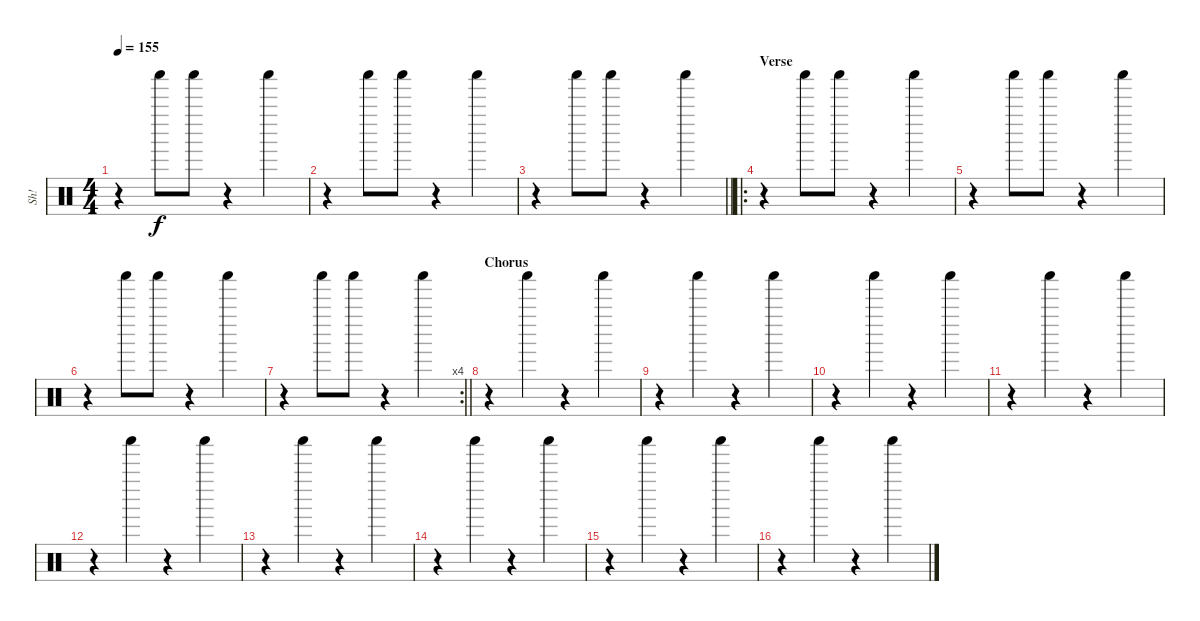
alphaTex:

\track ("Sh!" "Sh!") {instrument percussion}
\staff {score}
\articulation defaults
\ts (4 4)
\tempo 155
\clef neutral
\ks c
r.4{dy f} "Shaker (hit)".8 "Shaker (hit)".8 r.4 "Shaker (hit)".4 |
r.4 "Shaker (hit)".8 "Shaker (hit)".8 r.4 "Shaker (hit)".4 |
\barLineRight lightlight
r.4 "Shaker (hit)".8 "Shaker (hit)".8 r.4 "Shaker (hit)".4 |
\ro
\section ("" "Verse")
r.4 "Shaker (hit)".8 "Shaker (hit)".8 r.4 "Shaker (hit)".4 |
r.4 "Shaker (hit)".8 "Shaker (hit)".8 r.4 "Shaker (hit)".4 |
r.4 "Shaker (hit)".8 "Shaker (hit)".8 r.4 "Shaker (hit)".4 |
\rc 4
\barLineRight lightlight
r.4 "Shaker (hit)".8 "Shaker (hit)".8 r.4 "Shaker (hit)".4 |
\section ("" "Chorus")
r.4 "Shaker (hit)".4 r.4 "Shaker (hit)".4 |
r.4 "Shaker (hit)".4 r.4 "Shaker (hit)".4 |
r.4 "Shaker (hit)".4 r.4 "Shaker (hit)".4 |
r.4 "Shaker (hit)".4 r.4 "Shaker (hit)".4 |
r.4 "Shaker (hit)".4 r.4 "Shaker (hit)".4 |
r.4 "Shaker (hit)".4 r.4 "Shaker (hit)".4 |
r.4 "Shaker (hit)".4 r.4 "Shaker (hit)".4 |
r.4 "Shaker (hit)".4 r.4 "Shaker (hit)".4 |
r.4 "Shaker (hit)".4 r.4 "Shaker (hit)".4
